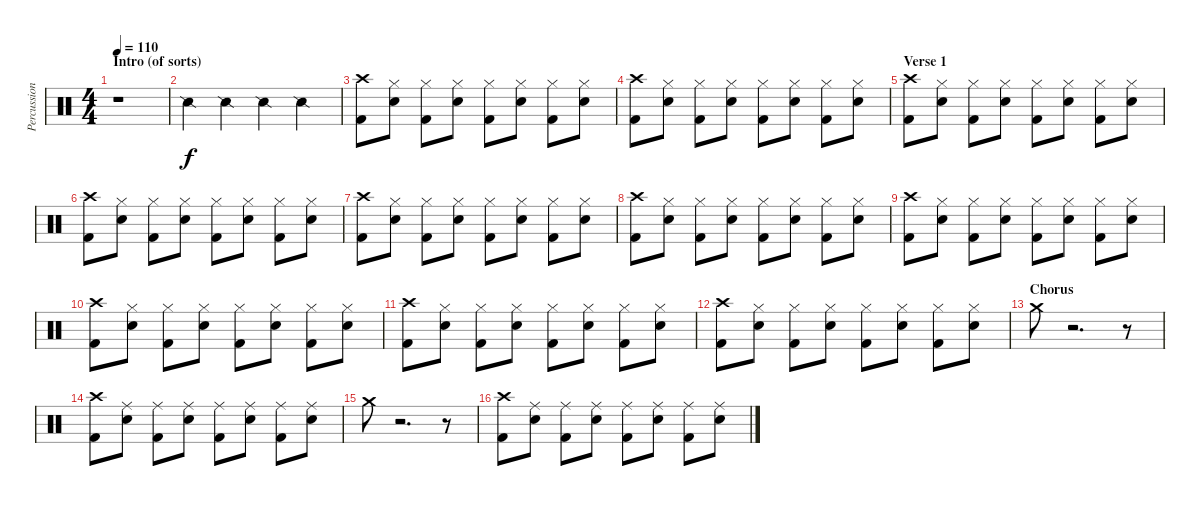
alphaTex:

\track ("Percussion" "Percussion") {instrument percussion}
\staff {score}
\articulation defaults
\ts (4 4)
\section ("" "Intro (of sorts)")
\tempo 110
\clef neutral
\ks c
r.1{dy f} |
"Snare (side stick) 2".4 "Snare (side stick) 2".4 "Snare (side stick) 2".4 "Snare (side stick) 2".4 |
("Crash high (hit)" "Kick (hit) 2").8 ("Hi-Hat (closed)" "Snare (hit) 2").8 ("Hi-Hat (closed)" "Kick (hit) 2").8 ("Hi-Hat (closed)" "Snare (hit) 2").8 ("Hi-Hat (closed)" "Kick (hit) 2").8 ("Hi-Hat (closed)" "Snare (hit) 2").8 ("Hi-Hat (closed)" "Kick (hit) 2").8 ("Hi-Hat (closed)" "Snare (hit) 2").8 |
("Crash high (hit)" "Kick (hit) 2").8 ("Hi-Hat (closed)" "Snare (hit) 2").8 ("Hi-Hat (closed)" "Kick (hit) 2").8 ("Hi-Hat (closed)" "Snare (hit) 2").8 ("Hi-Hat (closed)" "Kick (hit) 2").8 ("Hi-Hat (closed)" "Snare (hit) 2").8 ("Hi-Hat (closed)" "Kick (hit) 2").8 ("Hi-Hat (closed)" "Snare (hit) 2").8 |
\section ("" "Verse 1")
("Crash high (hit)" "Kick (hit) 2").8 ("Hi-Hat (closed)" "Snare (hit) 2").8 ("Hi-Hat (closed)" "Kick (hit) 2").8 ("Hi-Hat (closed)" "Snare (hit) 2").8 ("Hi-Hat (closed)" "Kick (hit) 2").8 ("Hi-Hat (closed)" "Snare (hit) 2").8 ("Hi-Hat (closed)" "Kick (hit) 2").8 ("Hi-Hat (closed)" "Snare (hit) 2").8 |
("Crash high (hit)" "Kick (hit) 2").8 ("Hi-Hat (closed)" "Snare (hit) 2").8 ("Hi-Hat (closed)" "Kick (hit) 2").8 ("Hi-Hat (closed)" "Snare (hit) 2").8 ("Hi-Hat (closed)" "Kick (hit) 2").8 ("Hi-Hat (closed)" "Snare (hit) 2").8 ("Hi-Hat (closed)" "Kick (hit) 2").8 ("Hi-Hat (closed)" "Snare (hit) 2").8 |
("Crash high (hit)" "Kick (hit) 2").8 ("Hi-Hat (closed)" "Snare (hit) 2").8 ("Hi-Hat (closed)" "Kick (hit) 2").8 ("Hi-Hat (closed)" "Snare (hit) 2").8 ("Hi-Hat (closed)" "Kick (hit) 2").8 ("Hi-Hat (closed)" "Snare (hit) 2").8 ("Hi-Hat (closed)" "Kick (hit) 2").8 ("Hi-Hat (closed)" "Snare (hit) 2").8 |
("Crash high (hit)" "Kick (hit) 2").8 ("Hi-Hat (closed)" "Snare (hit) 2").8 ("Hi-Hat (closed)" "Kick (hit) 2").8 ("Hi-Hat (closed)" "Snare (hit) 2").8 ("Hi-Hat (closed)" "Kick (hit) 2").8 ("Hi-Hat (closed)" "Snare (hit) 2").8 ("Hi-Hat (closed)" "Kick (hit) 2").8 ("Hi-Hat (closed)" "Snare (hit) 2").8 |
("Crash high (hit)" "Kick (hit) 2").8 ("Hi-Hat (closed)" "Snare (hit) 2").8 ("Hi-Hat (closed)" "Kick (hit) 2").8 ("Hi-Hat (closed)" "Snare (hit) 2").8 ("Hi-Hat (closed)" "Kick (hit) 2").8 ("Hi-Hat (closed)" "Snare (hit) 2").8 ("Hi-Hat (closed)" "Kick (hit) 2").8 ("Hi-Hat (closed)" "Snare (hit) 2").8 |
("Crash high (hit)" "Kick (hit) 2").8 ("Hi-Hat (closed)" "Snare (hit) 2").8 ("Hi-Hat (closed)" "Kick (hit) 2").8 ("Hi-Hat (closed)" "Snare (hit) 2").8 ("Hi-Hat (closed)" "Kick (hit) 2").8 ("Hi-Hat (closed)" "Snare (hit) 2").8 ("Hi-Hat (closed)" "Kick (hit) 2").8 ("Hi-Hat (closed)" "Snare (hit) 2").8 |
("Crash high (hit)" "Kick (hit) 2").8 ("Hi-Hat (closed)" "Snare (hit) 2").8 ("Hi-Hat (closed)" "Kick (hit) 2").8 ("Hi-Hat (closed)" "Snare (hit) 2").8 ("Hi-Hat (closed)" "Kick (hit) 2").8 ("Hi-Hat (closed)" "Snare (hit) 2").8 ("Hi-Hat (closed)" "Kick (hit) 2").8 ("Hi-Hat (closed)" "Snare (hit) 2").8 |
("Crash high (hit)" "Kick (hit) 2").8 ("Hi-Hat (closed)" "Snare (hit) 2").8 ("Hi-Hat (closed)" "Kick (hit) 2").8 ("Hi-Hat (closed)" "Snare (hit) 2").8 ("Hi-Hat (closed)" "Kick (hit) 2").8 ("Hi-Hat (closed)" "Snare (hit) 2").8 ("Hi-Hat (closed)" "Kick (hit) 2").8 ("Hi-Hat (closed)" "Snare (hit) 2").8 |
\section ("" "Chorus")
"Crash medium (hit)".8 r.2{d} r.8 |
("Crash high (hit)" "Kick (hit) 2").8 ("Ride (middle)" "Snare (hit) 2").8 ("Ride (middle)" "Kick (hit) 2").8 ("Ride (middle)" "Snare (hit) 2").8 ("Ride (middle)" "Kick (hit) 2").8 ("Ride (middle)" "Snare (hit) 2").8 ("Ride (middle)" "Kick (hit) 2").8 ("Ride (middle)" "Snare (hit) 2").8 |
"Crash medium (hit)".8 r.2{d} r.8 |
("Crash high (hit)" "Kick (hit) 2").8 ("Ride (middle)" "Snare (hit) 2").8 ("Ride (middle)" "Kick (hit) 2").8 ("Ride (middle)" "Snare (hit) 2").8 ("Ride (middle)" "Kick (hit) 2").8 ("Ride (middle)" "Snare (hit) 2").8 ("Ride (middle)" "Kick (hit) 2").8 ("Ride (middle)" "Snare (hit) 2").8
